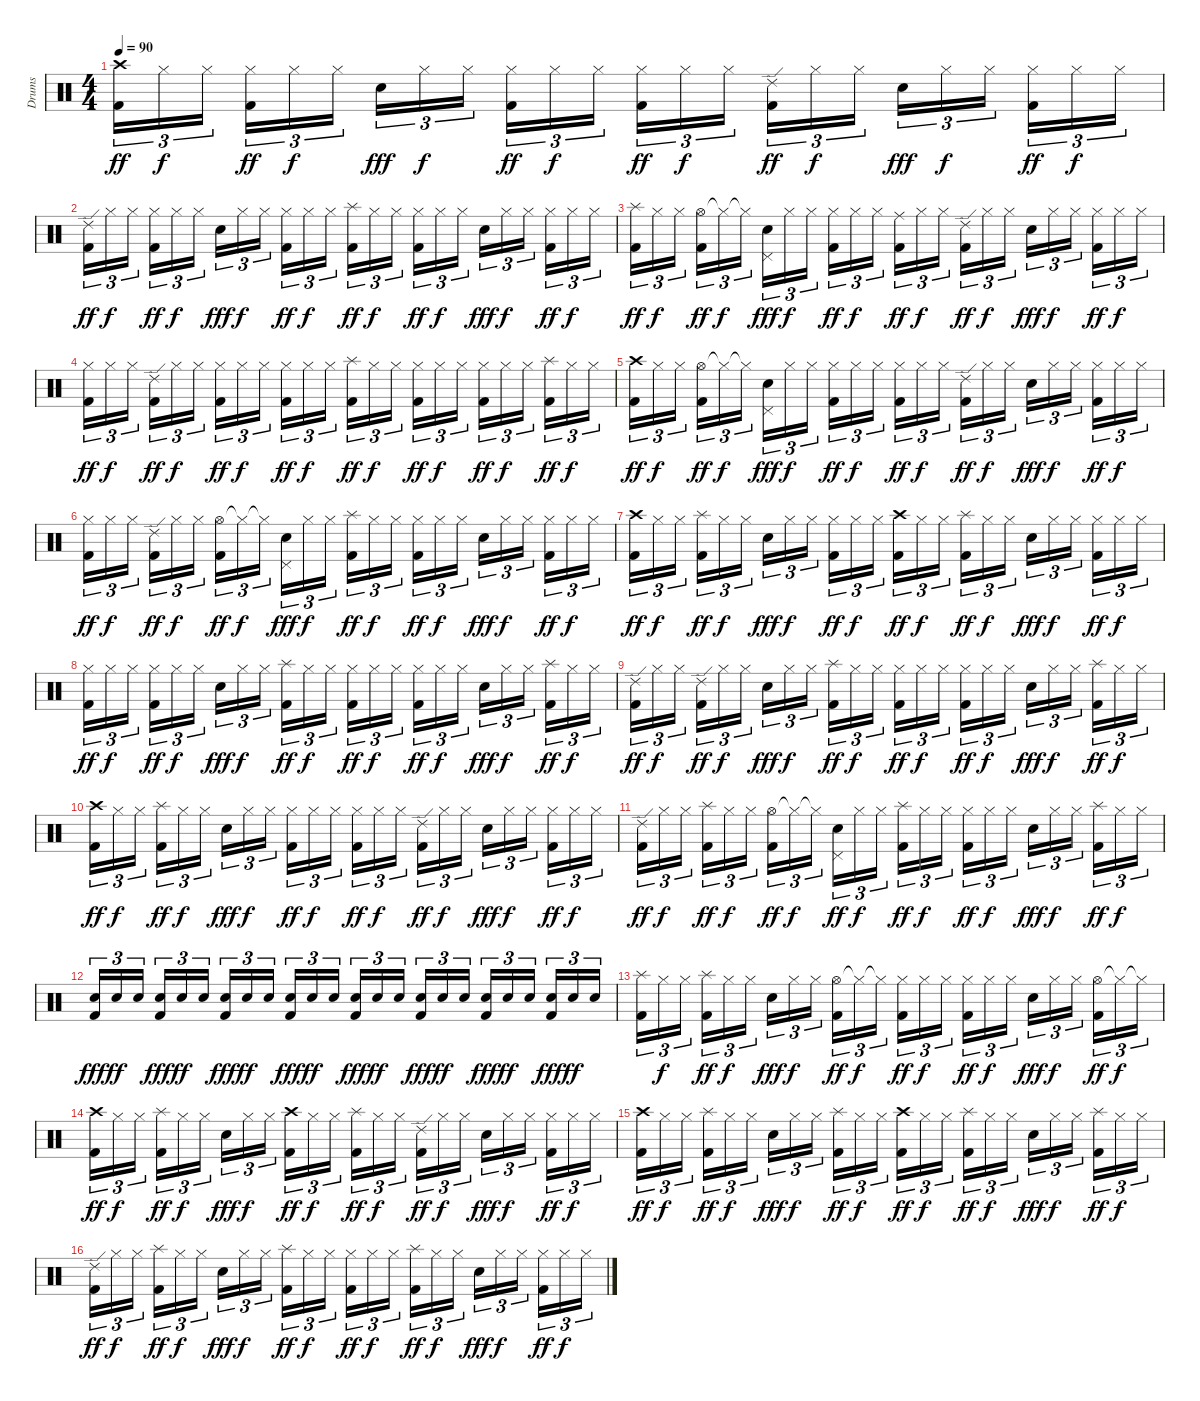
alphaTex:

\track ("Drums" "Drums") {instrument percussion}
\staff {score}
\articulation defaults
\ts (4 4)
\section ("" "")
\tempo 90
\clef neutral
\ks c
("Crash high (hit)" "Kick (hit) 2").16{tu (3 2) dy ff} "Hi-Hat (closed)".16{tu (3 2) dy f} "Hi-Hat (closed)".16{tu (3 2) beam splitsecondary} ("Hi-Hat (closed)" "Kick (hit) 2").16{tu (3 2) dy ff} "Hi-Hat (closed)".16{tu (3 2) dy f} "Hi-Hat (closed)".16{tu (3 2)} "Snare (hit) 2".16{tu (3 2) dy fff} "Hi-Hat (closed)".16{tu (3 2) dy f} "Hi-Hat (closed)".16{tu (3 2) beam splitsecondary} ("Hi-Hat (closed)" "Kick (hit) 2").16{tu (3 2) dy ff} "Hi-Hat (closed)".16{tu (3 2) dy f} "Hi-Hat (closed)".16{tu (3 2)} ("Hi-Hat (closed)" "Kick (hit) 2").16{tu (3 2) dy ff} "Hi-Hat (closed)".16{tu (3 2) dy f} "Hi-Hat (closed)".16{tu (3 2) beam splitsecondary} ("Ride (edge) 2" "Kick (hit) 2").16{tu (3 2) dy ff} "Hi-Hat (closed)".16{tu (3 2) dy f} "Hi-Hat (closed)".16{tu (3 2)} "Snare (hit) 2".16{tu (3 2) dy fff} "Hi-Hat (closed)".16{tu (3 2) dy f} "Hi-Hat (closed)".16{tu (3 2) beam splitsecondary} ("Hi-Hat (closed)" "Kick (hit) 2").16{tu (3 2) dy ff} "Hi-Hat (closed)".16{tu (3 2) dy f} "Hi-Hat (closed)".16{tu (3 2)} |
("Ride (edge) 2" "Kick (hit) 2").16{tu (3 2) dy ff} "Hi-Hat (closed)".16{tu (3 2) dy f} "Hi-Hat (closed)".16{tu (3 2) beam splitsecondary} ("Hi-Hat (closed)" "Kick (hit) 2").16{tu (3 2) dy ff} "Hi-Hat (closed)".16{tu (3 2) dy f} "Hi-Hat (closed)".16{tu (3 2)} "Snare (hit) 2".16{tu (3 2) dy fff} "Hi-Hat (closed)".16{tu (3 2) dy f} "Hi-Hat (closed)".16{tu (3 2) beam splitsecondary} ("Hi-Hat (closed)" "Kick (hit) 2").16{tu (3 2) dy ff} "Hi-Hat (closed)".16{tu (3 2) dy f} "Hi-Hat (closed)".16{tu (3 2)} ("Splash (hit)" "Kick (hit) 2").16{tu (3 2) dy ff} "Hi-Hat (closed)".16{tu (3 2) dy f} "Hi-Hat (closed)".16{tu (3 2) beam splitsecondary} ("Hi-Hat (closed)" "Kick (hit) 2").16{tu (3 2) dy ff} "Hi-Hat (closed)".16{tu (3 2) dy f} "Hi-Hat (closed)".16{tu (3 2)} "Snare (hit) 2".16{tu (3 2) dy fff} "Hi-Hat (closed)".16{tu (3 2) dy f} "Hi-Hat (closed)".16{tu (3 2) beam splitsecondary} ("Hi-Hat (closed)" "Kick (hit) 2").16{tu (3 2) dy ff} "Hi-Hat (closed)".16{tu (3 2) dy f} "Hi-Hat (closed)".16{tu (3 2)} |
("Splash (hit)" "Kick (hit) 2").16{tu (3 2) dy ff} "Hi-Hat (closed)".16{tu (3 2) dy f} "Hi-Hat (closed)".16{tu (3 2) beam splitsecondary} ("Hi-Hat (open)" "Kick (hit) 2").16{tu (3 2) dy ff} "Hi-Hat (closed)"{t}.16{tu (3 2) dy f} "Hi-Hat (closed)"{t}.16{tu (3 2)} ("Pedal Hi-Hat (hit)" "Snare (hit) 2").16{tu (3 2) dy fff} "Hi-Hat (closed)".16{tu (3 2) dy f} "Hi-Hat (closed)".16{tu (3 2) beam splitsecondary} ("Hi-Hat (closed)" "Kick (hit) 2").16{tu (3 2) dy ff} "Hi-Hat (closed)".16{tu (3 2) dy f} "Hi-Hat (closed)".16{tu (3 2)} ("Ride (middle)" "Kick (hit) 2").16{tu (3 2) dy ff} "Hi-Hat (closed)".16{tu (3 2) dy f} "Hi-Hat (closed)".16{tu (3 2) beam splitsecondary} ("Ride (edge) 2" "Kick (hit) 2").16{tu (3 2) dy ff} "Hi-Hat (closed)".16{tu (3 2) dy f} "Hi-Hat (closed)".16{tu (3 2)} "Snare (hit) 2".16{tu (3 2) dy fff} "Hi-Hat (closed)".16{tu (3 2) dy f} "Hi-Hat (closed)".16{tu (3 2) beam splitsecondary} ("Hi-Hat (closed)" "Kick (hit) 2").16{tu (3 2) dy ff} "Hi-Hat (closed)".16{tu (3 2) dy f} "Hi-Hat (closed)".16{tu (3 2)} |
("Hi-Hat (closed)" "Kick (hit) 2").16{tu (3 2) dy ff} "Hi-Hat (closed)".16{tu (3 2) dy f} "Hi-Hat (closed)".16{tu (3 2) beam splitsecondary} ("Ride (edge) 2" "Kick (hit) 2").16{tu (3 2) dy ff} "Hi-Hat (closed)".16{tu (3 2) dy f} "Hi-Hat (closed)".16{tu (3 2)} ("Hi-Hat (closed)" "Kick (hit) 2").16{tu (3 2) dy ff} "Hi-Hat (closed)".16{tu (3 2) dy f} "Hi-Hat (closed)".16{tu (3 2) beam splitsecondary} ("Hi-Hat (closed)" "Kick (hit) 2").16{tu (3 2) dy ff} "Hi-Hat (closed)".16{tu (3 2) dy f} "Hi-Hat (closed)".16{tu (3 2)} ("Splash (hit)" "Kick (hit) 2").16{tu (3 2) dy ff} "Hi-Hat (closed)".16{tu (3 2) dy f} "Hi-Hat (closed)".16{tu (3 2) beam splitsecondary} ("Hi-Hat (closed)" "Kick (hit) 2").16{tu (3 2) dy ff} "Hi-Hat (closed)".16{tu (3 2) dy f} "Hi-Hat (closed)".16{tu (3 2)} ("Hi-Hat (closed)" "Kick (hit) 2").16{tu (3 2) dy ff} "Hi-Hat (closed)".16{tu (3 2) dy f} "Hi-Hat (closed)".16{tu (3 2) beam splitsecondary} ("Splash (hit)" "Kick (hit) 2").16{tu (3 2) dy ff} "Hi-Hat (closed)".16{tu (3 2) dy f} "Hi-Hat (closed)".16{tu (3 2)} |
("Crash high (hit)" "Kick (hit) 2").16{tu (3 2) dy ff} "Hi-Hat (closed)".16{tu (3 2) dy f} "Hi-Hat (closed)".16{tu (3 2) beam splitsecondary} ("Hi-Hat (open)" "Kick (hit) 2").16{tu (3 2) dy ff} "Hi-Hat (closed)"{t}.16{tu (3 2) dy f} "Hi-Hat (closed)"{t}.16{tu (3 2)} ("Pedal Hi-Hat (hit)" "Snare (hit) 2").16{tu (3 2) dy fff} "Hi-Hat (closed)".16{tu (3 2) dy f} "Hi-Hat (closed)".16{tu (3 2) beam splitsecondary} ("Hi-Hat (closed)" "Kick (hit) 2").16{tu (3 2) dy ff} "Hi-Hat (closed)".16{tu (3 2) dy f} "Hi-Hat (closed)".16{tu (3 2)} ("Hi-Hat (closed)" "Kick (hit) 2").16{tu (3 2) dy ff} "Hi-Hat (closed)".16{tu (3 2) dy f} "Hi-Hat (closed)".16{tu (3 2) beam splitsecondary} ("Ride (edge) 2" "Kick (hit) 2").16{tu (3 2) dy ff} "Hi-Hat (closed)".16{tu (3 2) dy f} "Hi-Hat (closed)".16{tu (3 2)} "Snare (hit) 2".16{tu (3 2) dy fff} "Hi-Hat (closed)".16{tu (3 2) dy f} "Hi-Hat (closed)".16{tu (3 2) beam splitsecondary} ("Hi-Hat (closed)" "Kick (hit) 2").16{tu (3 2) dy ff} "Hi-Hat (closed)".16{tu (3 2) dy f} "Hi-Hat (closed)".16{tu (3 2)} |
("Hi-Hat (closed)" "Kick (hit) 2").16{tu (3 2) dy ff} "Hi-Hat (closed)".16{tu (3 2) dy f} "Hi-Hat (closed)".16{tu (3 2) beam splitsecondary} ("Ride (edge) 2" "Kick (hit) 2").16{tu (3 2) dy ff} "Hi-Hat (closed)".16{tu (3 2) dy f} "Hi-Hat (closed)".16{tu (3 2)} ("Hi-Hat (open)" "Kick (hit) 2").16{tu (3 2) dy ff} "Hi-Hat (closed)"{t}.16{tu (3 2) dy f} "Hi-Hat (closed)"{t}.16{tu (3 2) beam splitsecondary} ("Pedal Hi-Hat (hit)" "Snare (hit) 2").16{tu (3 2) dy fff} "Hi-Hat (closed)".16{tu (3 2) dy f} "Hi-Hat (closed)".16{tu (3 2)} ("Splash (hit)" "Kick (hit) 2").16{tu (3 2) dy ff} "Hi-Hat (closed)".16{tu (3 2) dy f} "Hi-Hat (closed)".16{tu (3 2) beam splitsecondary} ("Hi-Hat (closed)" "Kick (hit) 2").16{tu (3 2) dy ff} "Hi-Hat (closed)".16{tu (3 2) dy f} "Hi-Hat (closed)".16{tu (3 2)} "Snare (hit) 2".16{tu (3 2) dy fff} "Hi-Hat (closed)".16{tu (3 2) dy f} "Hi-Hat (closed)".16{tu (3 2) beam splitsecondary} ("Hi-Hat (closed)" "Kick (hit) 2").16{tu (3 2) dy ff} "Hi-Hat (closed)".16{tu (3 2) dy f} "Hi-Hat (closed)".16{tu (3 2)} |
("Crash high (hit)" "Kick (hit) 2").16{tu (3 2) dy ff} "Hi-Hat (closed)".16{tu (3 2) dy f} "Hi-Hat (closed)".16{tu (3 2) beam splitsecondary} ("Splash (hit)" "Kick (hit) 2").16{tu (3 2) dy ff} "Hi-Hat (closed)".16{tu (3 2) dy f} "Hi-Hat (closed)".16{tu (3 2)} "Snare (hit) 2".16{tu (3 2) dy fff} "Hi-Hat (closed)".16{tu (3 2) dy f} "Hi-Hat (closed)".16{tu (3 2) beam splitsecondary} ("Hi-Hat (closed)" "Kick (hit) 2").16{tu (3 2) dy ff} "Hi-Hat (closed)".16{tu (3 2) dy f} "Hi-Hat (closed)".16{tu (3 2)} ("Crash high (hit)" "Kick (hit) 2").16{tu (3 2) dy ff} "Hi-Hat (closed)".16{tu (3 2) dy f} "Hi-Hat (closed)".16{tu (3 2) beam splitsecondary} ("Splash (hit)" "Kick (hit) 2").16{tu (3 2) dy ff} "Hi-Hat (closed)".16{tu (3 2) dy f} "Hi-Hat (closed)".16{tu (3 2)} "Snare (hit) 2".16{tu (3 2) dy fff} "Hi-Hat (closed)".16{tu (3 2) dy f} "Hi-Hat (closed)".16{tu (3 2) beam splitsecondary} ("Hi-Hat (closed)" "Kick (hit) 2").16{tu (3 2) dy ff} "Hi-Hat (closed)".16{tu (3 2) dy f} "Hi-Hat (closed)".16{tu (3 2)} |
("Hi-Hat (closed)" "Kick (hit) 2").16{tu (3 2) dy ff} "Hi-Hat (closed)".16{tu (3 2) dy f} "Hi-Hat (closed)".16{tu (3 2) beam splitsecondary} ("Hi-Hat (closed)" "Kick (hit) 2").16{tu (3 2) dy ff} "Hi-Hat (closed)".16{tu (3 2) dy f} "Hi-Hat (closed)".16{tu (3 2)} "Snare (hit) 2".16{tu (3 2) dy fff} "Hi-Hat (closed)".16{tu (3 2) dy f} "Hi-Hat (closed)".16{tu (3 2) beam splitsecondary} ("Splash (hit)" "Kick (hit) 2").16{tu (3 2) dy ff} "Hi-Hat (closed)".16{tu (3 2) dy f} "Hi-Hat (closed)".16{tu (3 2)} ("Hi-Hat (closed)" "Kick (hit) 2").16{tu (3 2) dy ff} "Hi-Hat (closed)".16{tu (3 2) dy f} "Hi-Hat (closed)".16{tu (3 2) beam splitsecondary} ("Hi-Hat (closed)" "Kick (hit) 2").16{tu (3 2) dy ff} "Hi-Hat (closed)".16{tu (3 2) dy f} "Hi-Hat (closed)".16{tu (3 2)} "Snare (hit) 2".16{tu (3 2) dy fff} "Hi-Hat (closed)".16{tu (3 2) dy f} "Hi-Hat (closed)".16{tu (3 2) beam splitsecondary} ("Splash (hit)" "Kick (hit) 2").16{tu (3 2) dy ff} "Hi-Hat (closed)".16{tu (3 2) dy f} "Hi-Hat (closed)".16{tu (3 2)} |
("Ride (edge) 2" "Kick (hit) 2").16{tu (3 2) dy ff} "Hi-Hat (closed)".16{tu (3 2) dy f} "Hi-Hat (closed)".16{tu (3 2) beam splitsecondary} ("Ride (edge) 2" "Kick (hit) 2").16{tu (3 2) dy ff} "Hi-Hat (closed)".16{tu (3 2) dy f} "Hi-Hat (closed)".16{tu (3 2)} "Snare (hit) 2".16{tu (3 2) dy fff} "Hi-Hat (closed)".16{tu (3 2) dy f} "Hi-Hat (closed)".16{tu (3 2) beam splitsecondary} ("Splash (hit)" "Kick (hit) 2").16{tu (3 2) dy ff} "Hi-Hat (closed)".16{tu (3 2) dy f} "Hi-Hat (closed)".16{tu (3 2)} ("Hi-Hat (closed)" "Kick (hit) 2").16{tu (3 2) dy ff} "Hi-Hat (closed)".16{tu (3 2) dy f} "Hi-Hat (closed)".16{tu (3 2) beam splitsecondary} ("Hi-Hat (closed)" "Kick (hit) 2").16{tu (3 2) dy ff} "Hi-Hat (closed)".16{tu (3 2) dy f} "Hi-Hat (closed)".16{tu (3 2)} "Snare (hit) 2".16{tu (3 2) dy fff} "Hi-Hat (closed)".16{tu (3 2) dy f} "Hi-Hat (closed)".16{tu (3 2) beam splitsecondary} ("Splash (hit)" "Kick (hit) 2").16{tu (3 2) dy ff} "Hi-Hat (closed)".16{tu (3 2) dy f} "Hi-Hat (closed)".16{tu (3 2)} |
("Crash high (hit)" "Kick (hit) 2").16{tu (3 2) dy ff} "Hi-Hat (closed)".16{tu (3 2) dy f} "Hi-Hat (closed)".16{tu (3 2) beam splitsecondary} ("Splash (hit)" "Kick (hit) 2").16{tu (3 2) dy ff} "Hi-Hat (closed)".16{tu (3 2) dy f} "Hi-Hat (closed)".16{tu (3 2)} "Snare (hit) 2".16{tu (3 2) dy fff} "Hi-Hat (closed)".16{tu (3 2) dy f} "Hi-Hat (closed)".16{tu (3 2) beam splitsecondary} ("Hi-Hat (closed)" "Kick (hit) 2").16{tu (3 2) dy ff} "Hi-Hat (closed)".16{tu (3 2) dy f} "Hi-Hat (closed)".16{tu (3 2)} ("Hi-Hat (closed)" "Kick (hit) 2").16{tu (3 2) dy ff} "Hi-Hat (closed)".16{tu (3 2) dy f} "Hi-Hat (closed)".16{tu (3 2) beam splitsecondary} ("Ride (edge) 2" "Kick (hit) 2").16{tu (3 2) dy ff} "Hi-Hat (closed)".16{tu (3 2) dy f} "Hi-Hat (closed)".16{tu (3 2)} "Snare (hit) 2".16{tu (3 2) dy fff} "Hi-Hat (closed)".16{tu (3 2) dy f} "Hi-Hat (closed)".16{tu (3 2) beam splitsecondary} ("Hi-Hat (closed)" "Kick (hit) 2").16{tu (3 2) dy ff} "Hi-Hat (closed)".16{tu (3 2) dy f} "Hi-Hat (closed)".16{tu (3 2)} |
("Ride (edge) 2" "Kick (hit) 2").16{tu (3 2) dy ff} "Hi-Hat (closed)".16{tu (3 2) dy f} "Hi-Hat (closed)".16{tu (3 2) beam splitsecondary} ("Splash (hit)" "Kick (hit) 2").16{tu (3 2) dy ff} "Hi-Hat (closed)".16{tu (3 2) dy f} "Hi-Hat (closed)".16{tu (3 2)} ("Hi-Hat (open)" "Kick (hit) 2").16{tu (3 2) dy ff} "Hi-Hat (closed)"{t}.16{tu (3 2) dy f} "Hi-Hat (closed)"{t}.16{tu (3 2) beam splitsecondary} ("Pedal Hi-Hat (hit)" "Snare (hit) 2").16{tu (3 2) dy ff} "Hi-Hat (closed)".16{tu (3 2) dy f} "Hi-Hat (closed)".16{tu (3 2)} ("Splash (hit)" "Kick (hit) 2").16{tu (3 2) dy ff} "Hi-Hat (closed)".16{tu (3 2) dy f} "Hi-Hat (closed)".16{tu (3 2) beam splitsecondary} ("Hi-Hat (closed)" "Kick (hit) 2").16{tu (3 2) dy ff} "Hi-Hat (closed)".16{tu (3 2) dy f} "Hi-Hat (closed)".16{tu (3 2)} "Snare (hit) 2".16{tu (3 2) dy fff} "Hi-Hat (closed)".16{tu (3 2) dy f} "Hi-Hat (closed)".16{tu (3 2) beam splitsecondary} ("Splash (hit)" "Kick (hit) 2").16{tu (3 2) dy ff} "Hi-Hat (closed)".16{tu (3 2) dy f} "Hi-Hat (closed)".16{tu (3 2)} |
("Snare (hit) 2" "Kick (hit) 2").16{tu (3 2) dy fff} "Snare (hit) 2".16{tu (3 2) dy ff} "Snare (hit) 2".16{tu (3 2) beam splitsecondary} ("Snare (hit) 2" "Kick (hit) 2").16{tu (3 2) dy fff} "Snare (hit) 2".16{tu (3 2) dy ff} "Snare (hit) 2".16{tu (3 2)} ("Snare (hit) 2" "Kick (hit) 2").16{tu (3 2) dy fff} "Snare (hit) 2".16{tu (3 2) dy ff} "Snare (hit) 2".16{tu (3 2) beam splitsecondary} ("Snare (hit) 2" "Kick (hit) 2").16{tu (3 2) dy fff} "Snare (hit) 2".16{tu (3 2) dy ff} "Snare (hit) 2".16{tu (3 2)} ("Snare (hit) 2" "Kick (hit) 2").16{tu (3 2) dy fff} "Snare (hit) 2".16{tu (3 2) dy ff} "Snare (hit) 2".16{tu (3 2) beam splitsecondary} ("Snare (hit) 2" "Kick (hit) 2").16{tu (3 2) dy fff} "Snare (hit) 2".16{tu (3 2) dy ff} "Snare (hit) 2".16{tu (3 2)} ("Snare (hit) 2" "Kick (hit) 2").16{tu (3 2) dy fff} "Snare (hit) 2".16{tu (3 2) dy ff} "Snare (hit) 2".16{tu (3 2) beam splitsecondary} ("Snare (hit) 2" "Kick (hit) 2").16{tu (3 2) dy fff} "Snare (hit) 2".16{tu (3 2) dy ff} "Snare (hit) 2".16{tu (3 2)} |
("Splash (hit)" "Kick (hit) 2").16{tu (3 2)} "Hi-Hat (closed)".16{tu (3 2) dy f} "Hi-Hat (closed)".16{tu (3 2) beam splitsecondary} ("Splash (hit)" "Kick (hit) 2").16{tu (3 2) dy ff} "Hi-Hat (closed)".16{tu (3 2) dy f} "Hi-Hat (closed)".16{tu (3 2)} "Snare (hit) 2".16{tu (3 2) dy fff} "Hi-Hat (closed)".16{tu (3 2) dy f} "Hi-Hat (closed)".16{tu (3 2) beam splitsecondary} ("Hi-Hat (open)" "Kick (hit) 2").16{tu (3 2) dy ff} "Hi-Hat (closed)"{t}.16{tu (3 2) dy f} "Hi-Hat (closed)"{t}.16{tu (3 2)} ("Hi-Hat (closed)" "Kick (hit) 2").16{tu (3 2) dy ff} "Hi-Hat (closed)".16{tu (3 2) dy f} "Hi-Hat (closed)".16{tu (3 2) beam splitsecondary} ("Hi-Hat (closed)" "Kick (hit) 2").16{tu (3 2) dy ff} "Hi-Hat (closed)".16{tu (3 2) dy f} "Hi-Hat (closed)".16{tu (3 2)} "Snare (hit) 2".16{tu (3 2) dy fff} "Hi-Hat (closed)".16{tu (3 2) dy f} "Hi-Hat (closed)".16{tu (3 2) beam splitsecondary} ("Hi-Hat (open)" "Kick (hit) 2").16{tu (3 2) dy ff} "Hi-Hat (closed)"{t}.16{tu (3 2) dy f} "Hi-Hat (closed)"{t}.16{tu (3 2)} |
("Crash high (hit)" "Kick (hit) 2").16{tu (3 2) dy ff} "Hi-Hat (closed)".16{tu (3 2) dy f} "Hi-Hat (closed)".16{tu (3 2) beam splitsecondary} ("Splash (hit)" "Kick (hit) 2").16{tu (3 2) dy ff} "Hi-Hat (closed)".16{tu (3 2) dy f} "Hi-Hat (closed)".16{tu (3 2)} "Snare (hit) 2".16{tu (3 2) dy fff} "Hi-Hat (closed)".16{tu (3 2) dy f} "Hi-Hat (closed)".16{tu (3 2) beam splitsecondary} ("Crash high (hit)" "Kick (hit) 2").16{tu (3 2) dy ff} "Hi-Hat (closed)".16{tu (3 2) dy f} "Hi-Hat (closed)".16{tu (3 2)} ("Splash (hit)" "Kick (hit) 2").16{tu (3 2) dy ff} "Hi-Hat (closed)".16{tu (3 2) dy f} "Hi-Hat (closed)".16{tu (3 2) beam splitsecondary} ("Ride (edge) 2" "Kick (hit) 2").16{tu (3 2) dy ff} "Hi-Hat (closed)".16{tu (3 2) dy f} "Hi-Hat (closed)".16{tu (3 2)} "Snare (hit) 2".16{tu (3 2) dy fff} "Hi-Hat (closed)".16{tu (3 2) dy f} "Hi-Hat (closed)".16{tu (3 2) beam splitsecondary} ("Hi-Hat (closed)" "Kick (hit) 2").16{tu (3 2) dy ff} "Hi-Hat (closed)".16{tu (3 2) dy f} "Hi-Hat (closed)".16{tu (3 2)} |
("Crash high (hit)" "Kick (hit) 2").16{tu (3 2) dy ff} "Hi-Hat (closed)".16{tu (3 2) dy f} "Hi-Hat (closed)".16{tu (3 2) beam splitsecondary} ("Splash (hit)" "Kick (hit) 2").16{tu (3 2) dy ff} "Hi-Hat (closed)".16{tu (3 2) dy f} "Hi-Hat (closed)".16{tu (3 2)} "Snare (hit) 2".16{tu (3 2) dy fff} "Hi-Hat (closed)".16{tu (3 2) dy f} "Hi-Hat (closed)".16{tu (3 2) beam splitsecondary} ("Splash (hit)" "Kick (hit) 2").16{tu (3 2) dy ff} "Hi-Hat (closed)".16{tu (3 2) dy f} "Hi-Hat (closed)".16{tu (3 2)} ("Crash high (hit)" "Kick (hit) 2").16{tu (3 2) dy ff} "Hi-Hat (closed)".16{tu (3 2) dy f} "Hi-Hat (closed)".16{tu (3 2) beam splitsecondary} ("Splash (hit)" "Kick (hit) 2").16{tu (3 2) dy ff} "Hi-Hat (closed)".16{tu (3 2) dy f} "Hi-Hat (closed)".16{tu (3 2)} "Snare (hit) 2".16{tu (3 2) dy fff} "Hi-Hat (closed)".16{tu (3 2) dy f} "Hi-Hat (closed)".16{tu (3 2) beam splitsecondary} ("Splash (hit)" "Kick (hit) 2").16{tu (3 2) dy ff} "Hi-Hat (closed)".16{tu (3 2) dy f} "Hi-Hat (closed)".16{tu (3 2)} |
("Ride (edge) 2" "Kick (hit) 2").16{tu (3 2) dy ff} "Hi-Hat (closed)".16{tu (3 2) dy f} "Hi-Hat (closed)".16{tu (3 2) beam splitsecondary} ("Splash (hit)" "Kick (hit) 2").16{tu (3 2) dy ff} "Hi-Hat (closed)".16{tu (3 2) dy f} "Hi-Hat (closed)".16{tu (3 2)} "Snare (hit) 2".16{tu (3 2) dy fff} "Hi-Hat (closed)".16{tu (3 2) dy f} "Hi-Hat (closed)".16{tu (3 2) beam splitsecondary} ("Splash (hit)" "Kick (hit) 2").16{tu (3 2) dy ff} "Hi-Hat (closed)".16{tu (3 2) dy f} "Hi-Hat (closed)".16{tu (3 2)} ("Hi-Hat (closed)" "Kick (hit) 2").16{tu (3 2) dy ff} "Hi-Hat (closed)".16{tu (3 2) dy f} "Hi-Hat (closed)".16{tu (3 2) beam splitsecondary} ("Splash (hit)" "Kick (hit) 2").16{tu (3 2) dy ff} "Hi-Hat (closed)".16{tu (3 2) dy f} "Hi-Hat (closed)".16{tu (3 2)} "Snare (hit) 2".16{tu (3 2) dy fff} "Hi-Hat (closed)".16{tu (3 2) dy f} "Hi-Hat (closed)".16{tu (3 2) beam splitsecondary} ("Hi-Hat (closed)" "Kick (hit) 2").16{tu (3 2) dy ff} "Hi-Hat (closed)".16{tu (3 2) dy f} "Hi-Hat (closed)".16{tu (3 2)}
